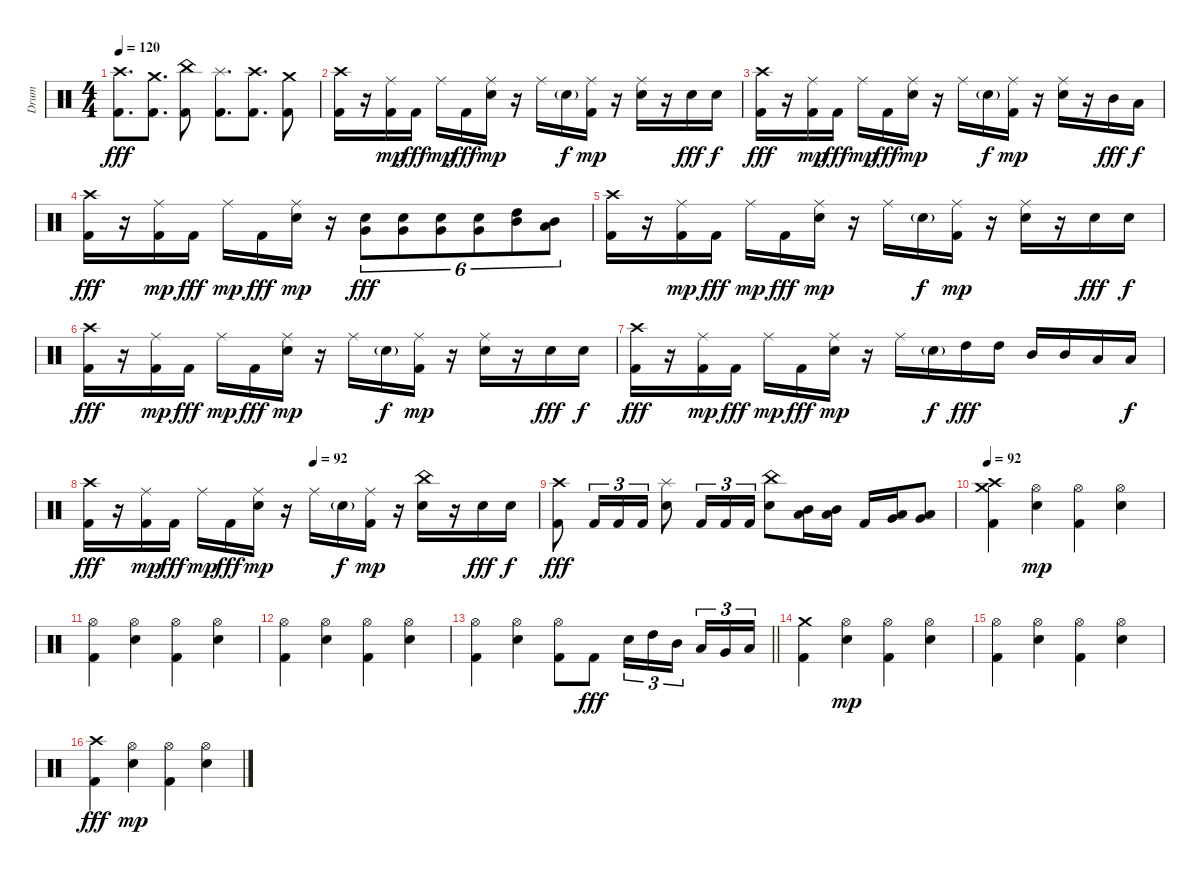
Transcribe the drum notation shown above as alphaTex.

\track ("Drum" "Drum") {instrument percussion}
\staff {score}
\articulation defaults
\ts (4 4)
\tempo 120
\clef neutral
\ks c
("Kick (hit) 2" "Crash high (hit)").8{d dy fff} ("Kick (hit) 2" "Crash medium (hit)").8{d} ("Kick (hit) 2" "China (hit)").8 ("Kick (hit) 2" "Splash (hit)").8{d} ("Kick (hit) 2" "Crash high (hit)").8{d} ("Kick (hit) 2" "Crash medium (hit)").8 |
("Kick (hit) 2" "Crash high (hit)").16 r.16 ("Kick (hit) 2" "Ride (middle)").16{dy mp} "Kick (hit) 2".16{dy fff} "Ride (middle)".16{dy mp} "Kick (hit) 2".16{dy fff} ("Electric Snare (hit)" "Ride (middle)").16{dy mp} r.16 "Ride (middle)".16 "Electric Snare (hit)"{g}.16{dy f} ("Kick (hit) 2" "Ride (middle)").16{dy mp} r.16 ("Electric Snare (hit)" "Ride (middle)").16 r.16 "Electric Snare (hit)".16{dy fff} "Electric Snare (hit)".16{dy f} |
("Kick (hit) 2" "Crash high (hit)").16{dy fff} r.16 ("Kick (hit) 2" "Ride (middle)").16{dy mp} "Kick (hit) 2".16{dy fff} "Ride (middle)".16{dy mp} "Kick (hit) 2".16{dy fff} ("Electric Snare (hit)" "Ride (middle)").16{dy mp} r.16 "Ride (middle)".16 "Electric Snare (hit)"{g}.16{dy f} ("Kick (hit) 2" "Ride (middle)").16{dy mp} r.16 ("Electric Snare (hit)" "Ride (middle)").16 r.16 "Mid Tom (hit)".16{dy fff} "Low Tom (hit)".16{dy f} |
("Kick (hit) 2" "Crash high (hit)").16{dy fff} r.16 ("Kick (hit) 2" "Ride (middle)").16{dy mp} "Kick (hit) 2".16{dy fff} "Ride (middle)".16{dy mp} "Kick (hit) 2".16{dy fff} ("Electric Snare (hit)" "Ride (middle)").16{dy mp} r.16 ("Electric Snare (hit)" "Very Low Tom (hit)").8{tu (6 4) dy fff} ("Electric Snare (hit)" "Very Low Tom (hit)").8{tu (6 4)} ("Electric Snare (hit)" "Very Low Tom (hit)").8{tu (6 4)} ("Electric Snare (hit)" "Very Low Tom (hit)").8{tu (6 4)} ("Mid Tom (hit)" "High Tom (hit)").8{tu (6 4)} ("Low Tom (hit)" "Mid Tom (hit)").8{tu (6 4)} |
("Kick (hit) 2" "Crash high (hit)").16 r.16 ("Kick (hit) 2" "Ride (middle)").16{dy mp} "Kick (hit) 2".16{dy fff} "Ride (middle)".16{dy mp} "Kick (hit) 2".16{dy fff} ("Electric Snare (hit)" "Ride (middle)").16{dy mp} r.16 "Ride (middle)".16 "Electric Snare (hit)"{g}.16{dy f} ("Kick (hit) 2" "Ride (middle)").16{dy mp} r.16 ("Electric Snare (hit)" "Ride (middle)").16 r.16 "Electric Snare (hit)".16{dy fff} "Electric Snare (hit)".16{dy f} |
("Kick (hit) 2" "Crash high (hit)").16{dy fff} r.16 ("Kick (hit) 2" "Ride (middle)").16{dy mp} "Kick (hit) 2".16{dy fff} "Ride (middle)".16{dy mp} "Kick (hit) 2".16{dy fff} ("Electric Snare (hit)" "Ride (middle)").16{dy mp} r.16 "Ride (middle)".16 "Electric Snare (hit)"{g}.16{dy f} ("Kick (hit) 2" "Ride (middle)").16{dy mp} r.16 ("Electric Snare (hit)" "Ride (middle)").16 r.16 "Electric Snare (hit)".16{dy fff} "Electric Snare (hit)".16{dy f} |
("Kick (hit) 2" "Crash high (hit)").16{dy fff} r.16 ("Kick (hit) 2" "Ride (middle)").16{dy mp} "Kick (hit) 2".16{dy fff} "Ride (middle)".16{dy mp} "Kick (hit) 2".16{dy fff} ("Electric Snare (hit)" "Ride (middle)").16{dy mp} r.16 "Ride (middle)".16 "Electric Snare (hit)"{g}.16{dy f} "High Tom (hit)".16{dy fff} "High Tom (hit)".16 "Mid Tom (hit)".16 "Mid Tom (hit)".16 "Low Tom (hit)".16 "Low Tom (hit)".16{dy f} |
\tempo (92 0.5)
("Kick (hit) 2" "Crash high (hit)").16{dy fff} r.16 ("Kick (hit) 2" "Ride (middle)").16{dy mp} "Kick (hit) 2".16{dy fff} "Ride (middle)".16{dy mp} "Kick (hit) 2".16{dy fff} ("Electric Snare (hit)" "Ride (middle)").16{dy mp} r.16 "Ride (middle)".16 "Electric Snare (hit)"{g}.16{dy f} ("Kick (hit) 2" "Ride (middle)").16{dy mp} r.16 ("Electric Snare (hit)" "China (hit)").16 r.16 "Electric Snare (hit)".16{dy fff} "Electric Snare (hit)".16{dy f} |
("Kick (hit) 2" "Crash high (hit)").8{dy fff} "Kick (hit) 2".16{tu (3 2)} "Kick (hit) 2".16{tu (3 2)} "Kick (hit) 2".16{tu (3 2)} ("Electric Snare (hit)" "Splash (hit)").8 "Kick (hit) 2".16{tu (3 2)} "Kick (hit) 2".16{tu (3 2)} "Kick (hit) 2".16{tu (3 2)} ("Electric Snare (hit)" "China (hit)").8 ("Mid Tom (hit)" "Low Tom (hit)").16 ("Mid Tom (hit)" "Low Tom (hit)").16 "Kick (hit) 2".16 ("Low Tom (hit)" "Very Low Tom (hit)").16 ("Low Tom (hit)" "Very Low Tom (hit)").8 |
\tempo 92
("Kick (hit) 2" "Crash high (hit)" "Crash medium (hit)").4 ("Electric Snare (hit)" "Hi-Hat (open)").4{dy mp} ("Kick (hit) 2" "Hi-Hat (open)").4 ("Electric Snare (hit)" "Hi-Hat (open)").4 |
("Kick (hit) 2" "Hi-Hat (open)").4 ("Electric Snare (hit)" "Hi-Hat (open)").4 ("Kick (hit) 2" "Hi-Hat (open)").4 ("Electric Snare (hit)" "Hi-Hat (open)").4 |
("Kick (hit) 2" "Hi-Hat (open)").4 ("Electric Snare (hit)" "Hi-Hat (open)").4 ("Kick (hit) 2" "Hi-Hat (open)").4 ("Electric Snare (hit)" "Hi-Hat (open)").4 |
\barLineRight lightlight
("Kick (hit) 2" "Hi-Hat (open)").4 ("Electric Snare (hit)" "Hi-Hat (open)").4 ("Kick (hit) 2" "Hi-Hat (open)").8 "Kick (hit) 2".8{dy fff} "Electric Snare (hit)".16{tu (3 2)} "High Tom (hit)".16{tu (3 2)} "Mid Tom (hit)".16{tu (3 2) beam splitsecondary} "Low Tom (hit)".16{tu (3 2)} "Very Low Tom (hit)".16{tu (3 2)} "Low Floor Tom (hit)".16{tu (3 2)} |
("Kick (hit) 2" "Crash medium (hit)").4 ("Electric Snare (hit)" "Hi-Hat (open)").4{dy mp} ("Kick (hit) 2" "Hi-Hat (open)").4 ("Electric Snare (hit)" "Hi-Hat (open)").4 |
("Kick (hit) 2" "Hi-Hat (open)").4 ("Electric Snare (hit)" "Hi-Hat (open)").4 ("Kick (hit) 2" "Hi-Hat (open)").4 ("Electric Snare (hit)" "Hi-Hat (open)").4 |
("Kick (hit) 2" "Crash high (hit)").4{dy fff} ("Electric Snare (hit)" "Hi-Hat (open)").4{dy mp} ("Kick (hit) 2" "Hi-Hat (open)").4 ("Electric Snare (hit)" "Hi-Hat (open)").4
